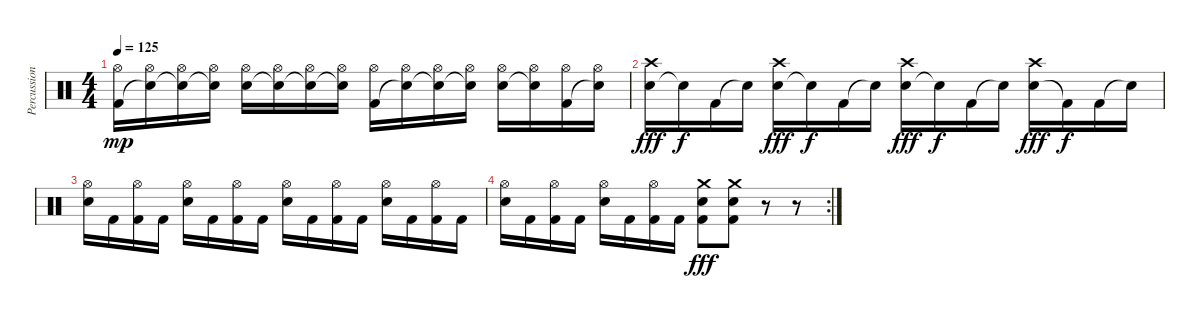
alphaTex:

\track ("Percussion" "Percussion") {instrument percussion}
\staff {score}
\articulation defaults
\ts (4 4)
\tempo 125
\clef neutral
\ks c
("Kick (hit) 2" "Hi-Hat (open)").16{dy mp} ("Snare (hit)"{t} "Hi-Hat (open)").16 ("Snare (hit)"{t} "Hi-Hat (open)").16 ("Snare (hit)"{t} "Hi-Hat (open)").16 ("Electric Snare (hit)" "Hi-Hat (open)").16 ("Snare (hit)"{t} "Hi-Hat (open)").16 ("Snare (hit)"{t} "Hi-Hat (open)").16 ("Snare (hit)"{t} "Hi-Hat (open)").16 ("Kick (hit) 2" "Hi-Hat (open)").16 ("Snare (hit)"{t} "Hi-Hat (open)").16 ("Snare (hit)"{t} "Hi-Hat (open)").16 ("Snare (hit)"{t} "Hi-Hat (open)").16 ("Electric Snare (hit)" "Hi-Hat (open)").16 ("Snare (hit)"{t} "Hi-Hat (open)").16 ("Kick (hit) 2" "Hi-Hat (open)").16 ("Snare (hit)"{t} "Hi-Hat (open)").16 |
("Electric Snare (hit)" "Crash high (hit)").16{dy fff} "Snare (hit)"{t}.16{dy f} "Kick (hit) 2".16 "Snare (hit)"{t}.16 ("Electric Snare (hit)" "Crash high (hit)").16{dy fff} "Snare (hit)"{t}.16{dy f} "Kick (hit) 2".16 "Snare (hit)"{t}.16 ("Electric Snare (hit)" "Crash high (hit)").16{dy fff} "Snare (hit)"{t}.16{dy f} "Kick (hit) 2".16 "Snare (hit)"{t}.16 ("Electric Snare (hit)" "Crash high (hit)").16{dy fff} "Kick (hit) 2"{t}.16{dy f} "Kick (hit) 2".16 "Snare (hit)"{t}.16 |
("Electric Snare (hit)" "Hi-Hat (open)").16 "Kick (hit) 2".16 ("Kick (hit) 2" "Hi-Hat (open)").16 "Kick (hit) 2".16 ("Electric Snare (hit)" "Hi-Hat (open)").16 "Kick (hit) 2".16 ("Kick (hit) 2" "Hi-Hat (open)").16 "Kick (hit) 2".16 ("Electric Snare (hit)" "Hi-Hat (open)").16 "Kick (hit) 2".16 ("Kick (hit) 2" "Hi-Hat (open)").16 "Kick (hit) 2".16 ("Electric Snare (hit)" "Hi-Hat (open)").16 "Kick (hit) 2".16 ("Kick (hit) 2" "Hi-Hat (open)").16 "Kick (hit) 2".16 |
\rc 2
("Electric Snare (hit)" "Hi-Hat (open)").16 "Kick (hit) 2".16 ("Kick (hit) 2" "Hi-Hat (open)").16 "Kick (hit) 2".16 ("Electric Snare (hit)" "Hi-Hat (open)").16 "Kick (hit) 2".16 ("Kick (hit) 2" "Hi-Hat (open)").16 "Kick (hit) 2".16 ("Electric Snare (hit)" "Kick (hit) 2" "Crash medium (hit)").8{dy fff} ("Electric Snare (hit)" "Kick (hit) 2" "Crash medium (hit)").8 r.8 r.8
